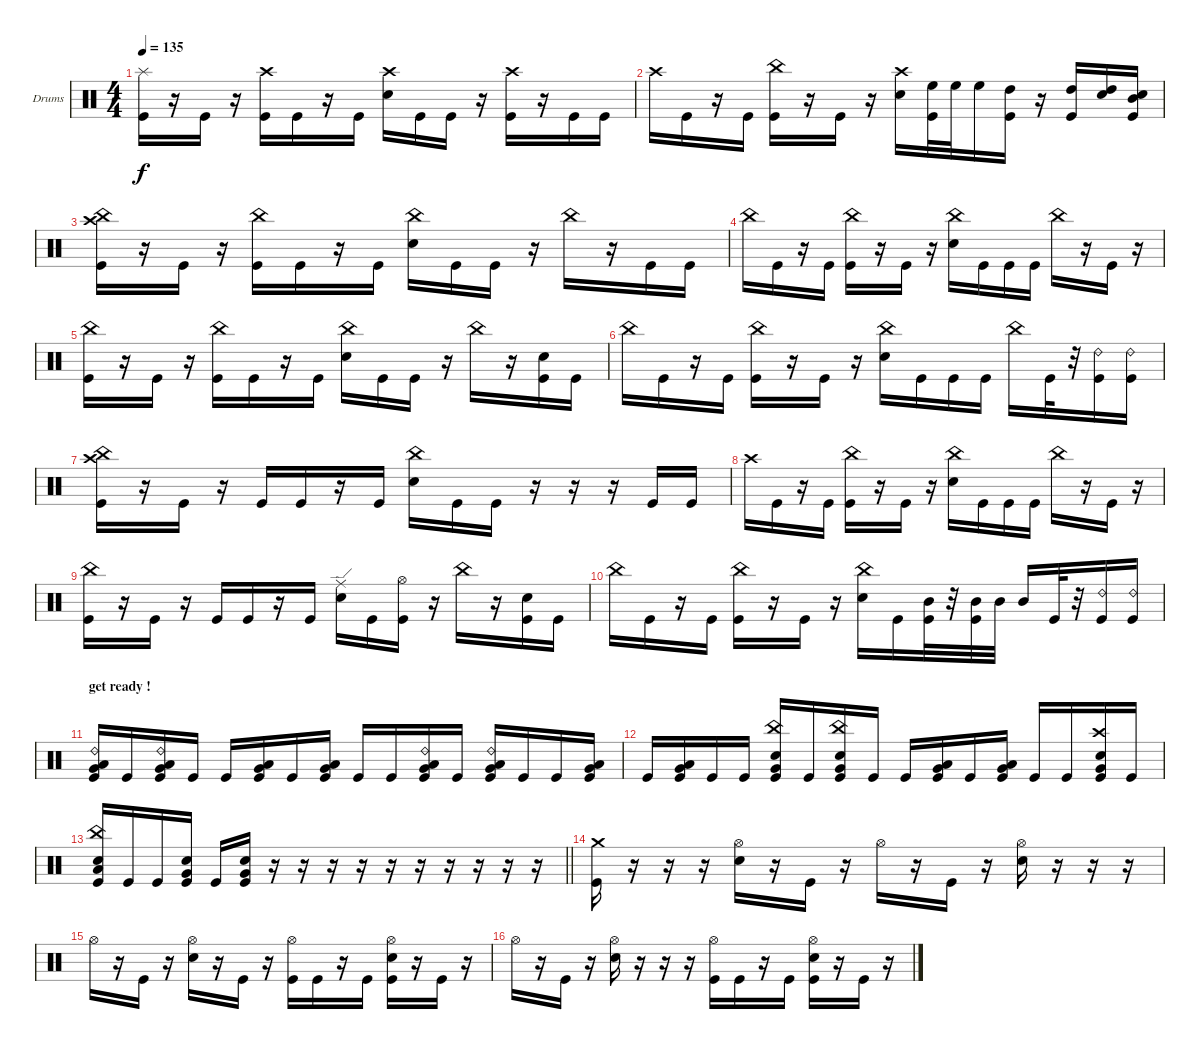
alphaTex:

\bracketExtendMode groupsimilarinstruments
\firstSystemTrackNameOrientation horizontal
\otherSystemsTrackNameOrientation horizontal
\track ("Drumkit" "Drums") {instrument percussion}
\staff {score}
\articulation defaults
\ts (4 4)
\tempo 135
\clef neutral
\ks c
("Splash (hit)" "Kick (hit)").16{dy f} r.16 "Kick (hit)".16 r.16 ("Crash high (hit)" "Kick (hit)").16 "Kick (hit)".16 r.16 "Kick (hit)".16 ("Crash high (hit)" "Snare (hit) 2").16 "Kick (hit)".16 "Kick (hit)".16 r.16 ("Crash high (hit)" "Kick (hit)").16 r.16 "Kick (hit)".16 "Kick (hit)".16 |
"Crash high (hit)".16 "Kick (hit)".16 r.16 "Kick (hit)".16 ("China (hit)" "Kick (hit)").16 r.16 "Kick (hit)".16 r.16 ("Crash high (hit)" "Snare (hit) 2").16 ("High Floor Tom (hit)" "Kick (hit)").32 "High Floor Tom (hit)".32 "High Floor Tom (hit)".16 ("High Tom (hit)" "Kick (hit)").16 r.16 ("High Tom (hit)" "Kick (hit)").16 ("High Tom (hit)" "Snare (hit) 2").16 ("Snare (hit) 2" "Mid Tom (hit)" "Kick (hit)").16 |
("Crash high (hit)" "China (hit)" "Kick (hit)").16 r.16 "Kick (hit)".16 r.16 ("China (hit)" "Kick (hit)").16 "Kick (hit)".16 r.16 "Kick (hit)".16 ("China (hit)" "Snare (hit) 2").16 "Kick (hit)".16 "Kick (hit)".16 r.16 "China (hit)".16 r.16 "Kick (hit)".16 "Kick (hit)".16 |
"China (hit)".16 "Kick (hit)".16 r.16 "Kick (hit)".16 ("China (hit)" "Kick (hit)").16 r.16 "Kick (hit)".16 r.16 ("China (hit)" "Snare (hit) 2").16 "Kick (hit)".16 "Kick (hit)".16 "Kick (hit)".16 "China (hit)".16 r.16 "Kick (hit)".16 r.16 |
("China (hit)" "Kick (hit)").16 r.16 "Kick (hit)".16 r.16 ("China (hit)" "Kick (hit)").16 "Kick (hit)".16 r.16 "Kick (hit)".16 ("China (hit)" "Snare (hit) 2").16 "Kick (hit)".16 "Kick (hit)".16 r.16 "China (hit)".16 r.16 ("Snare (hit) 2" "Kick (hit)").16 "Kick (hit)".16 |
"China (hit)".16 "Kick (hit)".16 r.16 "Kick (hit)".16 ("China (hit)" "Kick (hit)").16 r.16 "Kick (hit)".16 r.16 ("China (hit)" "Snare (hit) 2").16 "Kick (hit)".16 "Kick (hit)".16 "Kick (hit)".16 "China (hit)".16 "Kick (hit)".32 r.32 ("Ride (bell) 2" "Kick (hit)").16 ("Ride (bell) 2" "Kick (hit)").16 |
("Crash high (hit)" "China (hit)" "Kick (hit)").16 r.16 "Kick (hit)".16 r.16 "Kick (hit)".16 "Kick (hit)".16 r.16 "Kick (hit)".16 ("China (hit)" "Snare (hit) 2").16 "Kick (hit)".16 "Kick (hit)".16 r.16 r.16 r.16 "Kick (hit)".16 "Kick (hit)".16 |
"Crash high (hit)".16 "Kick (hit)".16 r.16 "Kick (hit)".16 ("China (hit)" "Kick (hit)").16 r.16 "Kick (hit)".16 r.16 ("China (hit)" "Snare (hit) 2").16 "Kick (hit)".16 "Kick (hit)".16 "Kick (hit)".16 "China (hit)".16 r.16 "Kick (hit)".16 r.16 |
("China (hit)" "Kick (hit)").16 r.16 "Kick (hit)".16 r.16 "Kick (hit)".16 "Kick (hit)".16 r.16 "Kick (hit)".16 ("Ride (edge)" "Snare (hit) 2").16 "Kick (hit)".16 ("Hi-Hat (open)" "Kick (hit)").16 r.16 "China (hit)".16 r.16 ("Snare (hit) 2" "Kick (hit)").16 "Kick (hit)".16 |
"China (hit)".16 "Kick (hit)".16 r.16 "Kick (hit)".16 ("China (hit)" "Kick (hit)").16 r.16 "Kick (hit)".16 r.16 ("China (hit)" "Snare (hit) 2").16 "Kick (hit)".16 ("Mid Tom (hit)" "Kick (hit)").32 r.32 ("Mid Tom (hit)" "Kick (hit)").32 "Mid Tom (hit)".32 "Mid Tom (hit)".16 "Kick (hit)".32 r.32 ("Ride (bell) 2" "Kick (hit)").16 ("Ride (bell) 2" "Kick (hit)").16 |
\section ("" "get ready !")
("Ride (bell) 2" "Low Tom (hit)" "Very Low Tom (hit)" "Kick (hit)").16 "Kick (hit)".16 ("Ride (bell) 2" "Low Tom (hit)" "Very Low Tom (hit)" "Kick (hit)").16 "Kick (hit)".16 "Kick (hit)".16 ("Low Tom (hit)" "Very Low Tom (hit)" "Kick (hit)").16 "Kick (hit)".16 ("Low Tom (hit)" "Very Low Tom (hit)" "Kick (hit)").16 "Kick (hit)".16 "Kick (hit)".16 ("Ride (bell) 2" "Low Tom (hit)" "Very Low Tom (hit)" "Kick (hit)").16 "Kick (hit)".16 ("Ride (bell) 2" "Low Tom (hit)" "Very Low Tom (hit)" "Kick (hit)").16 "Kick (hit)".16 "Kick (hit)".16 ("Low Tom (hit)" "Very Low Tom (hit)" "Kick (hit)").16 |
"Kick (hit)".16 ("Low Tom (hit)" "Very Low Tom (hit)" "Kick (hit)").16 "Kick (hit)".16 "Kick (hit)".16 ("China (hit)" "Snare (hit) 2" "Very Low Tom (hit)" "Kick (hit)").16 "Kick (hit)".16 ("China (hit)" "Snare (hit) 2" "Very Low Tom (hit)" "Kick (hit)").16 "Kick (hit)".16 "Kick (hit)".16 ("Low Tom (hit)" "Very Low Tom (hit)" "Kick (hit)").16 "Kick (hit)".16 ("Low Tom (hit)" "Very Low Tom (hit)" "Kick (hit)").16 "Kick (hit)".16 "Kick (hit)".16 ("Crash high (hit)" "Snare (hit) 2" "Very Low Tom (hit)" "Kick (hit)").16 "Kick (hit)".16 |
\barLineRight lightlight
("China (hit)" "Snare (hit) 2" "Low Tom (hit)" "Kick (hit)").16 "Kick (hit)".16 "Kick (hit)".16 ("Very Low Tom (hit)" "Snare (hit) 2" "Kick (hit)").16 "Kick (hit)".16 ("Very Low Tom (hit)" "Snare (hit) 2" "Kick (hit)").16 r.16 r.16 r.16 r.16 r.16 r.16 r.16 r.16 r.16 r.16 |
("Crash medium (hit)" "Kick (hit)").16 r.16 r.16 r.16 ("Hi-Hat (open)" "Snare (hit) 2").16 r.16 "Kick (hit)".16 r.16 "Hi-Hat (open)".16 r.16 "Kick (hit)".16 r.16 ("Hi-Hat (open)" "Snare (hit) 2").16 r.16 r.16 r.16 |
"Hi-Hat (open)".16 r.16 "Kick (hit)".16 r.16 ("Hi-Hat (open)" "Snare (hit) 2").16 r.16 "Kick (hit)".16 r.16 ("Hi-Hat (open)" "Kick (hit)").16 "Kick (hit)".16 r.16 "Kick (hit)".16 ("Hi-Hat (open)" "Snare (hit) 2" "Kick (hit)").16 r.16 "Kick (hit)".16 r.16 |
"Hi-Hat (open)".16 r.16 "Kick (hit)".16 r.16 ("Hi-Hat (open)" "Snare (hit) 2").16 r.16 r.16 r.16 ("Hi-Hat (open)" "Kick (hit)").16 "Kick (hit)".16 r.16 "Kick (hit)".16 ("Hi-Hat (open)" "Snare (hit) 2" "Kick (hit)").16 r.16 "Kick (hit)".16 r.16
